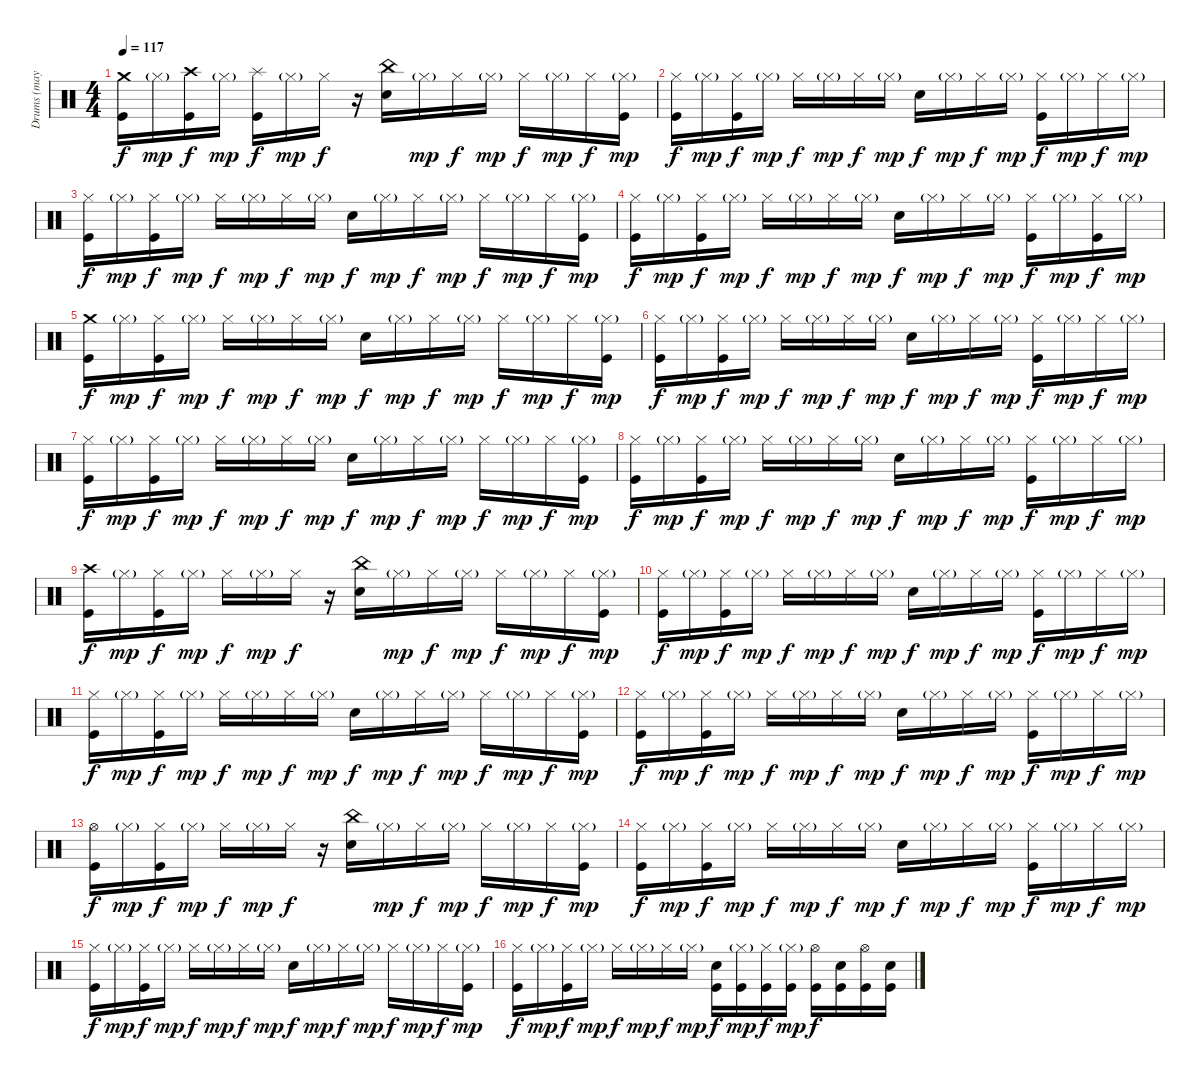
\track ("Drums (maybe electrical, too)" "Drums (may") {instrument percussion}
\staff {score}
\articulation defaults
\ts (4 4)
\tempo 117
\clef neutral
\ks c
("Crash medium (hit)" "Kick (hit)").16{dy f} "Hi-Hat (closed)"{g}.16{dy mp} ("Crash high (hit)" "Kick (hit)").16{dy f} "Hi-Hat (closed)"{g}.16{dy mp} ("Splash (hit)" "Kick (hit)").16{dy f} "Hi-Hat (closed)"{g}.16{dy mp} "Hi-Hat (closed)".16{dy f} r.16 ("China (hit)" "Electric Snare (hit)").16 "Hi-Hat (closed)"{g}.16{dy mp} "Hi-Hat (closed)".16{dy f} "Hi-Hat (closed)"{g}.16{dy mp} "Hi-Hat (closed)".16{dy f} "Hi-Hat (closed)"{g}.16{dy mp} "Hi-Hat (closed)".16{dy f} ("Hi-Hat (closed)"{g} "Kick (hit)").16{dy mp} |
("Hi-Hat (closed)" "Kick (hit)").16{dy f} "Hi-Hat (closed)"{g}.16{dy mp} ("Hi-Hat (closed)" "Kick (hit)").16{dy f} "Hi-Hat (closed)"{g}.16{dy mp} "Hi-Hat (closed)".16{dy f} "Hi-Hat (closed)"{g}.16{dy mp} "Hi-Hat (closed)".16{dy f} "Hi-Hat (closed)"{g}.16{dy mp} "Electric Snare (hit)".16{dy f} "Hi-Hat (closed)"{g}.16{dy mp} "Hi-Hat (closed)".16{dy f} "Hi-Hat (closed)"{g}.16{dy mp} ("Hi-Hat (closed)" "Kick (hit)").16{dy f} "Hi-Hat (closed)"{g}.16{dy mp} "Hi-Hat (closed)".16{dy f} "Hi-Hat (closed)"{g}.16{dy mp} |
("Hi-Hat (closed)" "Kick (hit)").16{dy f} "Hi-Hat (closed)"{g}.16{dy mp} ("Hi-Hat (closed)" "Kick (hit)").16{dy f} "Hi-Hat (closed)"{g}.16{dy mp} "Hi-Hat (closed)".16{dy f} "Hi-Hat (closed)"{g}.16{dy mp} "Hi-Hat (closed)".16{dy f} "Hi-Hat (closed)"{g}.16{dy mp} "Electric Snare (hit)".16{dy f} "Hi-Hat (closed)"{g}.16{dy mp} "Hi-Hat (closed)".16{dy f} "Hi-Hat (closed)"{g}.16{dy mp} "Hi-Hat (closed)".16{dy f} "Hi-Hat (closed)"{g}.16{dy mp} "Hi-Hat (closed)".16{dy f} ("Hi-Hat (closed)"{g} "Kick (hit)").16{dy mp} |
("Hi-Hat (closed)" "Kick (hit)").16{dy f} "Hi-Hat (closed)"{g}.16{dy mp} ("Hi-Hat (closed)" "Kick (hit)").16{dy f} "Hi-Hat (closed)"{g}.16{dy mp} "Hi-Hat (closed)".16{dy f} "Hi-Hat (closed)"{g}.16{dy mp} "Hi-Hat (closed)".16{dy f} "Hi-Hat (closed)"{g}.16{dy mp} "Electric Snare (hit)".16{dy f} "Hi-Hat (closed)"{g}.16{dy mp} "Hi-Hat (closed)".16{dy f} "Hi-Hat (closed)"{g}.16{dy mp} ("Hi-Hat (closed)" "Kick (hit)").16{dy f} "Hi-Hat (closed)"{g}.16{dy mp} ("Hi-Hat (closed)" "Kick (hit)").16{dy f} "Hi-Hat (closed)"{g}.16{dy mp} |
("Crash medium (hit)" "Kick (hit)").16{dy f} "Hi-Hat (closed)"{g}.16{dy mp} ("Hi-Hat (closed)" "Kick (hit)").16{dy f} "Hi-Hat (closed)"{g}.16{dy mp} "Hi-Hat (closed)".16{dy f} "Hi-Hat (closed)"{g}.16{dy mp} "Hi-Hat (closed)".16{dy f} "Hi-Hat (closed)"{g}.16{dy mp} "Electric Snare (hit)".16{dy f} "Hi-Hat (closed)"{g}.16{dy mp} "Hi-Hat (closed)".16{dy f} "Hi-Hat (closed)"{g}.16{dy mp} "Hi-Hat (closed)".16{dy f} "Hi-Hat (closed)"{g}.16{dy mp} "Hi-Hat (closed)".16{dy f} ("Hi-Hat (closed)"{g} "Kick (hit)").16{dy mp} |
("Hi-Hat (closed)" "Kick (hit)").16{dy f} "Hi-Hat (closed)"{g}.16{dy mp} ("Hi-Hat (closed)" "Kick (hit)").16{dy f} "Hi-Hat (closed)"{g}.16{dy mp} "Hi-Hat (closed)".16{dy f} "Hi-Hat (closed)"{g}.16{dy mp} "Hi-Hat (closed)".16{dy f} "Hi-Hat (closed)"{g}.16{dy mp} "Electric Snare (hit)".16{dy f} "Hi-Hat (closed)"{g}.16{dy mp} "Hi-Hat (closed)".16{dy f} "Hi-Hat (closed)"{g}.16{dy mp} ("Hi-Hat (closed)" "Kick (hit)").16{dy f} "Hi-Hat (closed)"{g}.16{dy mp} "Hi-Hat (closed)".16{dy f} "Hi-Hat (closed)"{g}.16{dy mp} |
("Hi-Hat (closed)" "Kick (hit)").16{dy f} "Hi-Hat (closed)"{g}.16{dy mp} ("Hi-Hat (closed)" "Kick (hit)").16{dy f} "Hi-Hat (closed)"{g}.16{dy mp} "Hi-Hat (closed)".16{dy f} "Hi-Hat (closed)"{g}.16{dy mp} "Hi-Hat (closed)".16{dy f} "Hi-Hat (closed)"{g}.16{dy mp} "Electric Snare (hit)".16{dy f} "Hi-Hat (closed)"{g}.16{dy mp} "Hi-Hat (closed)".16{dy f} "Hi-Hat (closed)"{g}.16{dy mp} "Hi-Hat (closed)".16{dy f} "Hi-Hat (closed)"{g}.16{dy mp} "Hi-Hat (closed)".16{dy f} ("Hi-Hat (closed)"{g} "Kick (hit)").16{dy mp} |
("Hi-Hat (closed)" "Kick (hit)").16{dy f} "Hi-Hat (closed)"{g}.16{dy mp} ("Hi-Hat (closed)" "Kick (hit)").16{dy f} "Hi-Hat (closed)"{g}.16{dy mp} "Hi-Hat (closed)".16{dy f} "Hi-Hat (closed)"{g}.16{dy mp} "Hi-Hat (closed)".16{dy f} "Hi-Hat (closed)"{g}.16{dy mp} "Electric Snare (hit)".16{dy f} "Hi-Hat (closed)"{g}.16{dy mp} "Hi-Hat (closed)".16{dy f} "Hi-Hat (closed)"{g}.16{dy mp} ("Hi-Hat (closed)" "Kick (hit)").16{dy f} "Hi-Hat (closed)"{g}.16{dy mp} "Hi-Hat (closed)".16{dy f} "Hi-Hat (closed)"{g}.16{dy mp} |
\section ("" "")
("Crash high (hit)" "Kick (hit)").16{dy f} "Hi-Hat (closed)"{g}.16{dy mp} ("Hi-Hat (closed)" "Kick (hit)").16{dy f} "Hi-Hat (closed)"{g}.16{dy mp} "Hi-Hat (closed)".16{dy f} "Hi-Hat (closed)"{g}.16{dy mp} "Hi-Hat (closed)".16{dy f} r.16 ("China (hit)" "Electric Snare (hit)").16 "Hi-Hat (closed)"{g}.16{dy mp} "Hi-Hat (closed)".16{dy f} "Hi-Hat (closed)"{g}.16{dy mp} "Hi-Hat (closed)".16{dy f} "Hi-Hat (closed)"{g}.16{dy mp} "Hi-Hat (closed)".16{dy f} ("Hi-Hat (closed)"{g} "Kick (hit)").16{dy mp} |
("Hi-Hat (closed)" "Kick (hit)").16{dy f} "Hi-Hat (closed)"{g}.16{dy mp} ("Hi-Hat (closed)" "Kick (hit)").16{dy f} "Hi-Hat (closed)"{g}.16{dy mp} "Hi-Hat (closed)".16{dy f} "Hi-Hat (closed)"{g}.16{dy mp} "Hi-Hat (closed)".16{dy f} "Hi-Hat (closed)"{g}.16{dy mp} "Electric Snare (hit)".16{dy f} "Hi-Hat (closed)"{g}.16{dy mp} "Hi-Hat (closed)".16{dy f} "Hi-Hat (closed)"{g}.16{dy mp} ("Hi-Hat (closed)" "Kick (hit)").16{dy f} "Hi-Hat (closed)"{g}.16{dy mp} "Hi-Hat (closed)".16{dy f} "Hi-Hat (closed)"{g}.16{dy mp} |
("Hi-Hat (closed)" "Kick (hit)").16{dy f} "Hi-Hat (closed)"{g}.16{dy mp} ("Hi-Hat (closed)" "Kick (hit)").16{dy f} "Hi-Hat (closed)"{g}.16{dy mp} "Hi-Hat (closed)".16{dy f} "Hi-Hat (closed)"{g}.16{dy mp} "Hi-Hat (closed)".16{dy f} "Hi-Hat (closed)"{g}.16{dy mp} "Electric Snare (hit)".16{dy f} "Hi-Hat (closed)"{g}.16{dy mp} "Hi-Hat (closed)".16{dy f} "Hi-Hat (closed)"{g}.16{dy mp} "Hi-Hat (closed)".16{dy f} "Hi-Hat (closed)"{g}.16{dy mp} "Hi-Hat (closed)".16{dy f} ("Hi-Hat (closed)"{g} "Kick (hit)").16{dy mp} |
("Hi-Hat (closed)" "Kick (hit)").16{dy f} "Hi-Hat (closed)"{g}.16{dy mp} ("Hi-Hat (closed)" "Kick (hit)").16{dy f} "Hi-Hat (closed)"{g}.16{dy mp} "Hi-Hat (closed)".16{dy f} "Hi-Hat (closed)"{g}.16{dy mp} "Hi-Hat (closed)".16{dy f} "Hi-Hat (closed)"{g}.16{dy mp} "Electric Snare (hit)".16{dy f} "Hi-Hat (closed)"{g}.16{dy mp} "Hi-Hat (closed)".16{dy f} "Hi-Hat (closed)"{g}.16{dy mp} ("Hi-Hat (closed)" "Kick (hit)").16{dy f} "Hi-Hat (closed)"{g}.16{dy mp} "Hi-Hat (closed)".16{dy f} "Hi-Hat (closed)"{g}.16{dy mp} |
("Hi-Hat (open)" "Kick (hit)").16{dy f} "Hi-Hat (closed)"{g}.16{dy mp} ("Hi-Hat (closed)" "Kick (hit)").16{dy f} "Hi-Hat (closed)"{g}.16{dy mp} "Hi-Hat (closed)".16{dy f} "Hi-Hat (closed)"{g}.16{dy mp} "Hi-Hat (closed)".16{dy f} r.16 ("China (hit)" "Electric Snare (hit)").16 "Hi-Hat (closed)"{g}.16{dy mp} "Hi-Hat (closed)".16{dy f} "Hi-Hat (closed)"{g}.16{dy mp} "Hi-Hat (closed)".16{dy f} "Hi-Hat (closed)"{g}.16{dy mp} "Hi-Hat (closed)".16{dy f} ("Hi-Hat (closed)"{g} "Kick (hit)").16{dy mp} |
("Hi-Hat (closed)" "Kick (hit)").16{dy f} "Hi-Hat (closed)"{g}.16{dy mp} ("Hi-Hat (closed)" "Kick (hit)").16{dy f} "Hi-Hat (closed)"{g}.16{dy mp} "Hi-Hat (closed)".16{dy f} "Hi-Hat (closed)"{g}.16{dy mp} "Hi-Hat (closed)".16{dy f} "Hi-Hat (closed)"{g}.16{dy mp} "Electric Snare (hit)".16{dy f} "Hi-Hat (closed)"{g}.16{dy mp} "Hi-Hat (closed)".16{dy f} "Hi-Hat (closed)"{g}.16{dy mp} ("Hi-Hat (closed)" "Kick (hit)").16{dy f} "Hi-Hat (closed)"{g}.16{dy mp} "Hi-Hat (closed)".16{dy f} "Hi-Hat (closed)"{g}.16{dy mp} |
("Hi-Hat (closed)" "Kick (hit)").16{dy f} "Hi-Hat (closed)"{g}.16{dy mp} ("Hi-Hat (closed)" "Kick (hit)").16{dy f} "Hi-Hat (closed)"{g}.16{dy mp} "Hi-Hat (closed)".16{dy f} "Hi-Hat (closed)"{g}.16{dy mp} "Hi-Hat (closed)".16{dy f} "Hi-Hat (closed)"{g}.16{dy mp} "Electric Snare (hit)".16{dy f} "Hi-Hat (closed)"{g}.16{dy mp} "Hi-Hat (closed)".16{dy f} "Hi-Hat (closed)"{g}.16{dy mp} "Hi-Hat (closed)".16{dy f} "Hi-Hat (closed)"{g}.16{dy mp} "Hi-Hat (closed)".16{dy f} ("Hi-Hat (closed)"{g} "Kick (hit)").16{dy mp} |
("Hi-Hat (closed)" "Kick (hit)").16{dy f} "Hi-Hat (closed)"{g}.16{dy mp} ("Hi-Hat (closed)" "Kick (hit)").16{dy f} "Hi-Hat (closed)"{g}.16{dy mp} "Hi-Hat (closed)".16{dy f} "Hi-Hat (closed)"{g}.16{dy mp} "Hi-Hat (closed)".16{dy f} "Hi-Hat (closed)"{g}.16{dy mp} ("Electric Snare (hit)" "Kick (hit)").16{dy f} ("Hi-Hat (closed)"{g} "Kick (hit)").16{dy mp} ("Hi-Hat (closed)" "Kick (hit)").16{dy f} ("Hi-Hat (closed)"{g} "Kick (hit)").16{dy mp} ("Hi-Hat (open)" "Kick (hit)").16{dy f} ("Electric Snare (hit)" "Kick (hit)").16 ("Hi-Hat (open)" "Kick (hit)").16 ("Electric Snare (hit)" "Kick (hit)").16
